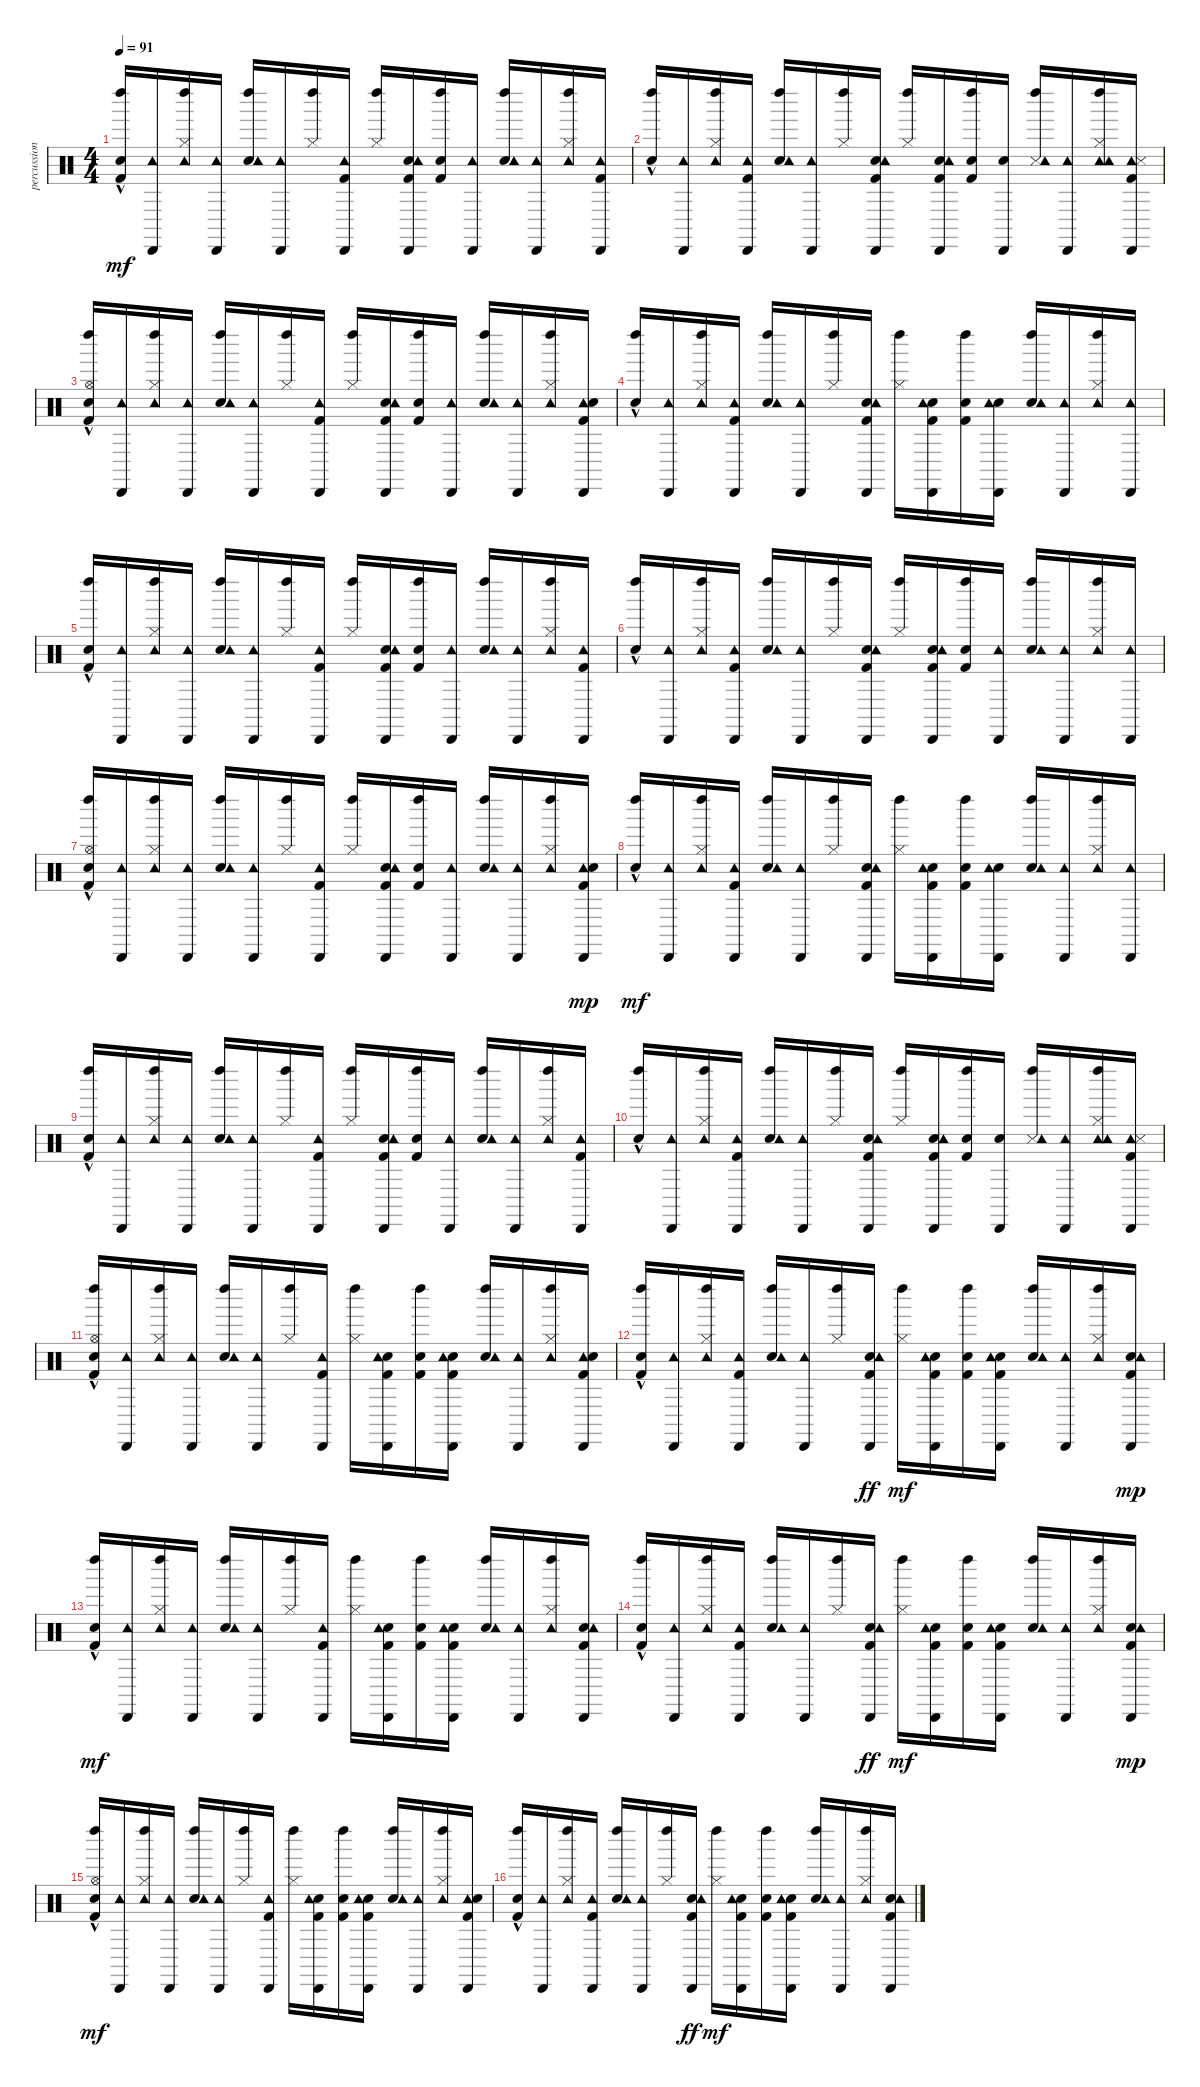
\track ("percussion" "percussion") {instrument percussion}
\staff {score}
\articulation defaults
\ts (4 4)
\tempo 91
\clef neutral
\ks c
("Kick (hit) 2" "Electric Snare (hit)"{hac} "Left Maraca (hit)").16{dy mf} ("Cabasa (hit)" "Tambourine (hit)").16 ("Hi-Hat (closed)" "Left Maraca (hit)" "Tambourine (hit)").16 ("Cabasa (hit)" "Tambourine (hit)").16 ("Electric Snare (hit)" "Left Maraca (hit)" "Tambourine (hit)").16 ("Cabasa (hit)" "Tambourine (hit)").16 ("Hi-Hat (closed)" "Left Maraca (hit)").16 ("Kick (hit) 2" "Cabasa (hit)" "Tambourine (hit)").16 ("Hi-Hat (closed)" "Left Maraca (hit)").16 ("Kick (hit) 2" "Electric Snare (hit)" "Cabasa (hit)" "Tambourine (hit)").16 ("Electric Snare (hit)" "Left Maraca (hit)" "Kick (hit) 2").16 ("Cabasa (hit)" "Tambourine (hit)").16 ("Electric Snare (hit)" "Left Maraca (hit)" "Tambourine (hit)").16 ("Cabasa (hit)" "Tambourine (hit)").16 ("Tambourine (hit)" "Hi-Hat (closed)" "Left Maraca (hit)").16 ("Kick (hit) 2" "Tambourine (hit)" "Cabasa (hit)").16 |
("Left Maraca (hit)" "Electric Snare (hit)"{hac}).16 ("Cabasa (hit)" "Tambourine (hit)").16 ("Hi-Hat (closed)" "Left Maraca (hit)" "Tambourine (hit)").16 ("Cabasa (hit)" "Tambourine (hit)" "Kick (hit) 2").16 ("Electric Snare (hit)" "Left Maraca (hit)" "Tambourine (hit)").16 ("Cabasa (hit)" "Tambourine (hit)").16 ("Hi-Hat (closed)" "Left Maraca (hit)").16 ("Electric Snare (hit)" "Cabasa (hit)" "Tambourine (hit)" "Kick (hit) 2").16 ("Hi-Hat (closed)" "Left Maraca (hit)").16 ("Electric Snare (hit)" "Cabasa (hit)" "Tambourine (hit)" "Kick (hit) 2").16 ("Electric Snare (hit)" "Left Maraca (hit)" "Kick (hit) 2").16 ("Electric Snare (hit)" "Cabasa (hit)").16 ("Metronome (hit)" "Left Maraca (hit)" "Tambourine (hit)").16 ("Cabasa (hit)" "Tambourine (hit)").16 ("Left Maraca (hit)" "Tambourine (hit)" "Hi-Hat (closed)" "Tambourine (hit)").16 ("Cabasa (hit)" "Tambourine (hit)" "Kick (hit) 2" "Metronome (hit)").16 |
("Hi-Hat (open)" "Electric Snare (hit)"{hac} "Kick (hit) 2" "Left Maraca (hit)").16{volume 14} ("Cabasa (hit)" "Tambourine (hit)").16 ("Hi-Hat (closed)" "Left Maraca (hit)" "Tambourine (hit)").16 ("Cabasa (hit)" "Tambourine (hit)").16 ("Electric Snare (hit)" "Left Maraca (hit)" "Tambourine (hit)").16 ("Cabasa (hit)" "Tambourine (hit)").16 ("Hi-Hat (closed)" "Left Maraca (hit)").16 ("Kick (hit) 2" "Cabasa (hit)" "Tambourine (hit)").16{volume 14} ("Hi-Hat (closed)" "Left Maraca (hit)").16 ("Electric Snare (hit)" "Kick (hit) 2" "Cabasa (hit)" "Tambourine (hit)").16 ("Electric Snare (hit)" "Kick (hit) 2" "Left Maraca (hit)").16 ("Cabasa (hit)" "Tambourine (hit)").16 ("Electric Snare (hit)" "Left Maraca (hit)" "Tambourine (hit)").16 ("Cabasa (hit)" "Tambourine (hit)").16 ("Tambourine (hit)" "Hi-Hat (closed)" "Left Maraca (hit)").16 ("Tambourine (hit)" "Electric Snare (hit)" "Kick (hit) 2" "Cabasa (hit)").16 |
("Left Maraca (hit)" "Electric Snare (hit)"{hac}).16 ("Tambourine (hit)" "Cabasa (hit)").16 ("Hi-Hat (closed)" "Tambourine (hit)" "Left Maraca (hit)").16 ("Tambourine (hit)" "Cabasa (hit)" "Kick (hit) 2").16 ("Electric Snare (hit)" "Tambourine (hit)" "Left Maraca (hit)").16 ("Tambourine (hit)" "Cabasa (hit)").16 ("Hi-Hat (closed)" "Left Maraca (hit)").16 ("Electric Snare (hit)" "Tambourine (hit)" "Cabasa (hit)" "Kick (hit) 2").16 ("Hi-Hat (closed)" "Left Maraca (hit)").16 ("Electric Snare (hit)" "Tambourine (hit)" "Cabasa (hit)" "Kick (hit) 2").16 ("Electric Snare (hit)" "Left Maraca (hit)" "Kick (hit) 2").16 ("Electric Snare (hit)" "Tambourine (hit)" "Cabasa (hit)").16 ("Electric Snare (hit)" "Tambourine (hit)" "Left Maraca (hit)").16 ("Tambourine (hit)" "Cabasa (hit)").16 ("Left Maraca (hit)" "Tambourine (hit)" "Hi-Hat (closed)").16 ("Cabasa (hit)" "Tambourine (hit)").16 |
("Left Maraca (hit)" "Kick (hit) 2" "Electric Snare (hit)"{hac}).16 ("Tambourine (hit)" "Cabasa (hit)").16 ("Hi-Hat (closed)" "Tambourine (hit)" "Left Maraca (hit)").16 ("Tambourine (hit)" "Cabasa (hit)").16 ("Electric Snare (hit)" "Tambourine (hit)" "Left Maraca (hit)").16 ("Tambourine (hit)" "Cabasa (hit)").16 ("Hi-Hat (closed)" "Left Maraca (hit)").16 ("Kick (hit) 2" "Tambourine (hit)" "Cabasa (hit)").16 ("Hi-Hat (closed)" "Left Maraca (hit)").16 ("Kick (hit) 2" "Electric Snare (hit)" "Tambourine (hit)" "Cabasa (hit)").16 ("Electric Snare (hit)" "Left Maraca (hit)" "Kick (hit) 2").16 ("Tambourine (hit)" "Cabasa (hit)").16 ("Electric Snare (hit)" "Tambourine (hit)" "Left Maraca (hit)").16 ("Tambourine (hit)" "Cabasa (hit)").16 ("Left Maraca (hit)" "Tambourine (hit)" "Hi-Hat (closed)").16 ("Cabasa (hit)" "Kick (hit) 2" "Tambourine (hit)").16 |
("Left Maraca (hit)" "Electric Snare (hit)"{hac}).16 ("Cabasa (hit)" "Tambourine (hit)").16 ("Hi-Hat (closed)" "Left Maraca (hit)" "Tambourine (hit)").16 ("Cabasa (hit)" "Tambourine (hit)" "Kick (hit) 2").16 ("Electric Snare (hit)" "Left Maraca (hit)" "Tambourine (hit)").16 ("Cabasa (hit)" "Tambourine (hit)").16 ("Hi-Hat (closed)" "Left Maraca (hit)").16 ("Electric Snare (hit)" "Cabasa (hit)" "Tambourine (hit)" "Kick (hit) 2").16 ("Hi-Hat (closed)" "Left Maraca (hit)").16 ("Electric Snare (hit)" "Cabasa (hit)" "Tambourine (hit)" "Kick (hit) 2").16 ("Electric Snare (hit)" "Left Maraca (hit)" "Kick (hit) 2").16 ("Cabasa (hit)" "Tambourine (hit)").16 ("Electric Snare (hit)" "Left Maraca (hit)" "Tambourine (hit)").16 ("Cabasa (hit)" "Tambourine (hit)").16 ("Left Maraca (hit)" "Tambourine (hit)" "Hi-Hat (closed)").16 ("Cabasa (hit)" "Tambourine (hit)").16 |
("Left Maraca (hit)" "Kick (hit) 2" "Hi-Hat (open)" "Electric Snare (hit)"{hac}).16 ("Tambourine (hit)" "Cabasa (hit)").16 ("Hi-Hat (closed)" "Tambourine (hit)" "Left Maraca (hit)").16 ("Tambourine (hit)" "Cabasa (hit)").16 ("Electric Snare (hit)" "Tambourine (hit)" "Left Maraca (hit)").16 ("Tambourine (hit)" "Cabasa (hit)").16 ("Hi-Hat (closed)" "Left Maraca (hit)").16 ("Kick (hit) 2" "Tambourine (hit)" "Cabasa (hit)").16 ("Hi-Hat (closed)" "Left Maraca (hit)").16 ("Kick (hit) 2" "Electric Snare (hit)" "Tambourine (hit)" "Cabasa (hit)").16 ("Kick (hit) 2" "Electric Snare (hit)" "Left Maraca (hit)").16 ("Tambourine (hit)" "Cabasa (hit)").16 ("Electric Snare (hit)" "Tambourine (hit)" "Left Maraca (hit)").16 ("Tambourine (hit)" "Cabasa (hit)").16 ("Left Maraca (hit)" "Tambourine (hit)" "Hi-Hat (closed)").16 ("Cabasa (hit)" "Kick (hit) 2" "Tambourine (hit)" "Electric Snare (hit)").16{dy mp} |
("Electric Snare (hit)"{hac} "Left Maraca (hit)").16{dy mf} ("Tambourine (hit)" "Cabasa (hit)").16 ("Hi-Hat (closed)" "Tambourine (hit)" "Left Maraca (hit)").16 ("Tambourine (hit)" "Cabasa (hit)" "Kick (hit) 2").16 ("Electric Snare (hit)" "Tambourine (hit)" "Left Maraca (hit)").16 ("Tambourine (hit)" "Cabasa (hit)").16 ("Hi-Hat (closed)" "Left Maraca (hit)").16 ("Electric Snare (hit)" "Tambourine (hit)" "Cabasa (hit)" "Kick (hit) 2").16 ("Hi-Hat (closed)" "Left Maraca (hit)").16 ("Electric Snare (hit)" "Tambourine (hit)" "Cabasa (hit)" "Kick (hit) 2").16 ("Electric Snare (hit)" "Left Maraca (hit)" "Kick (hit) 2").16 ("Electric Snare (hit)" "Tambourine (hit)" "Cabasa (hit)").16 ("Electric Snare (hit)" "Tambourine (hit)" "Left Maraca (hit)").16 ("Tambourine (hit)" "Cabasa (hit)").16 ("Tambourine (hit)" "Hi-Hat (closed)" "Left Maraca (hit)").16 ("Tambourine (hit)" "Cabasa (hit)").16 |
("Kick (hit) 2" "Electric Snare (hit)"{hac} "Left Maraca (hit)").16 ("Cabasa (hit)" "Tambourine (hit)").16 ("Hi-Hat (closed)" "Left Maraca (hit)" "Tambourine (hit)").16 ("Cabasa (hit)" "Tambourine (hit)").16 ("Electric Snare (hit)" "Left Maraca (hit)" "Tambourine (hit)").16 ("Cabasa (hit)" "Tambourine (hit)").16 ("Hi-Hat (closed)" "Left Maraca (hit)").16 ("Kick (hit) 2" "Cabasa (hit)" "Tambourine (hit)").16 ("Hi-Hat (closed)" "Left Maraca (hit)").16 ("Kick (hit) 2" "Electric Snare (hit)" "Cabasa (hit)" "Tambourine (hit)").16{volume 14} ("Electric Snare (hit)" "Left Maraca (hit)" "Kick (hit) 2").16 ("Cabasa (hit)" "Tambourine (hit)").16 ("Electric Snare (hit)" "Left Maraca (hit)" "Tambourine (hit)").16 ("Cabasa (hit)" "Tambourine (hit)").16 ("Tambourine (hit)" "Hi-Hat (closed)" "Left Maraca (hit)").16 ("Kick (hit) 2" "Tambourine (hit)" "Cabasa (hit)").16 |
("Left Maraca (hit)" "Electric Snare (hit)"{hac}).16 ("Cabasa (hit)" "Tambourine (hit)").16 ("Hi-Hat (closed)" "Left Maraca (hit)" "Tambourine (hit)").16 ("Cabasa (hit)" "Tambourine (hit)" "Kick (hit) 2").16 ("Electric Snare (hit)" "Left Maraca (hit)" "Tambourine (hit)").16 ("Cabasa (hit)" "Tambourine (hit)").16 ("Hi-Hat (closed)" "Left Maraca (hit)").16 ("Electric Snare (hit)" "Cabasa (hit)" "Tambourine (hit)" "Kick (hit) 2").16 ("Hi-Hat (closed)" "Left Maraca (hit)").16 ("Electric Snare (hit)" "Cabasa (hit)" "Tambourine (hit)" "Kick (hit) 2").16 ("Electric Snare (hit)" "Left Maraca (hit)" "Kick (hit) 2").16 ("Electric Snare (hit)" "Cabasa (hit)").16 ("Metronome (hit)" "Left Maraca (hit)" "Tambourine (hit)").16 ("Cabasa (hit)" "Tambourine (hit)").16 ("Left Maraca (hit)" "Tambourine (hit)" "Hi-Hat (closed)" "Tambourine (hit)").16 ("Cabasa (hit)" "Tambourine (hit)" "Kick (hit) 2" "Metronome (hit)").16 |
("Hi-Hat (open)" "Electric Snare (hit)"{hac} "Kick (hit) 2" "Left Maraca (hit)").16 ("Cabasa (hit)" "Tambourine (hit)").16 ("Hi-Hat (closed)" "Left Maraca (hit)" "Tambourine (hit)").16 ("Cabasa (hit)" "Tambourine (hit)").16 ("Electric Snare (hit)" "Left Maraca (hit)" "Tambourine (hit)").16 ("Cabasa (hit)" "Tambourine (hit)").16 ("Hi-Hat (closed)" "Left Maraca (hit)").16 ("Kick (hit) 2" "Cabasa (hit)" "Tambourine (hit)").16 ("Hi-Hat (closed)" "Left Maraca (hit)").16 ("Electric Snare (hit)" "Kick (hit) 2" "Cabasa (hit)" "Tambourine (hit)").16 ("Electric Snare (hit)" "Kick (hit) 2" "Left Maraca (hit)").16 ("Kick (hit) 2" "Electric Snare (hit)" "Cabasa (hit)" "Tambourine (hit)").16 ("Electric Snare (hit)" "Left Maraca (hit)" "Tambourine (hit)").16 ("Cabasa (hit)" "Tambourine (hit)").16 ("Tambourine (hit)" "Hi-Hat (closed)" "Left Maraca (hit)").16 ("Kick (hit) 2" "Tambourine (hit)" "Electric Snare (hit)" "Cabasa (hit)").16 |
("Kick (hit) 2" "Left Maraca (hit)" "Electric Snare (hit)"{hac}).16 ("Tambourine (hit)" "Cabasa (hit)").16 ("Hi-Hat (closed)" "Tambourine (hit)" "Left Maraca (hit)").16 ("Tambourine (hit)" "Cabasa (hit)" "Kick (hit) 2").16 ("Electric Snare (hit)" "Tambourine (hit)" "Left Maraca (hit)").16 ("Tambourine (hit)" "Cabasa (hit)").16 ("Hi-Hat (closed)" "Left Maraca (hit)").16 ("Electric Snare (hit)" "Tambourine (hit)" "Cabasa (hit)" "Kick (hit) 2").16{dy ff} ("Hi-Hat (closed)" "Left Maraca (hit)").16{dy mf} ("Electric Snare (hit)" "Tambourine (hit)" "Cabasa (hit)" "Kick (hit) 2").16 ("Electric Snare (hit)" "Left Maraca (hit)" "Kick (hit) 2").16 ("Kick (hit) 2" "Electric Snare (hit)" "Tambourine (hit)" "Cabasa (hit)").16 ("Electric Snare (hit)" "Tambourine (hit)" "Left Maraca (hit)").16 ("Tambourine (hit)" "Cabasa (hit)").16 ("Left Maraca (hit)" "Tambourine (hit)" "Hi-Hat (closed)").16 ("Electric Snare (hit)" "Cabasa (hit)" "Tambourine (hit)" "Kick (hit) 2").16{dy mp} |
("Kick (hit) 2" "Left Maraca (hit)" "Electric Snare (hit)"{hac}).16{dy mf} ("Tambourine (hit)" "Cabasa (hit)").16 ("Hi-Hat (closed)" "Tambourine (hit)" "Left Maraca (hit)").16 ("Tambourine (hit)" "Cabasa (hit)").16 ("Electric Snare (hit)" "Tambourine (hit)" "Left Maraca (hit)").16 ("Tambourine (hit)" "Cabasa (hit)").16 ("Hi-Hat (closed)" "Left Maraca (hit)").16 ("Kick (hit) 2" "Tambourine (hit)" "Cabasa (hit)").16 ("Hi-Hat (closed)" "Left Maraca (hit)").16 ("Kick (hit) 2" "Electric Snare (hit)" "Tambourine (hit)" "Cabasa (hit)").16 ("Electric Snare (hit)" "Left Maraca (hit)" "Kick (hit) 2").16 ("Kick (hit) 2" "Electric Snare (hit)" "Tambourine (hit)" "Cabasa (hit)").16 ("Electric Snare (hit)" "Tambourine (hit)" "Left Maraca (hit)").16 ("Tambourine (hit)" "Cabasa (hit)").16 ("Left Maraca (hit)" "Tambourine (hit)" "Hi-Hat (closed)").16 ("Kick (hit) 2" "Electric Snare (hit)" "Cabasa (hit)" "Tambourine (hit)").16 |
("Kick (hit) 2" "Left Maraca (hit)" "Electric Snare (hit)"{hac}).16 ("Cabasa (hit)" "Tambourine (hit)").16 ("Hi-Hat (closed)" "Left Maraca (hit)" "Tambourine (hit)").16 ("Cabasa (hit)" "Tambourine (hit)" "Kick (hit) 2").16 ("Electric Snare (hit)" "Left Maraca (hit)" "Tambourine (hit)").16 ("Cabasa (hit)" "Tambourine (hit)").16 ("Hi-Hat (closed)" "Left Maraca (hit)").16 ("Electric Snare (hit)" "Cabasa (hit)" "Tambourine (hit)" "Kick (hit) 2").16{dy ff} ("Hi-Hat (closed)" "Left Maraca (hit)").16{dy mf} ("Electric Snare (hit)" "Cabasa (hit)" "Tambourine (hit)" "Kick (hit) 2").16 ("Electric Snare (hit)" "Left Maraca (hit)" "Kick (hit) 2").16 ("Kick (hit) 2" "Electric Snare (hit)" "Cabasa (hit)" "Tambourine (hit)").16 ("Electric Snare (hit)" "Left Maraca (hit)" "Tambourine (hit)").16 ("Cabasa (hit)" "Tambourine (hit)").16 ("Left Maraca (hit)" "Tambourine (hit)" "Hi-Hat (closed)").16 ("Electric Snare (hit)" "Cabasa (hit)" "Tambourine (hit)" "Kick (hit) 2").16{dy mp} |
("Kick (hit) 2" "Left Maraca (hit)" "Hi-Hat (open)" "Electric Snare (hit)"{hac}).16{dy mf} ("Tambourine (hit)" "Cabasa (hit)").16 ("Hi-Hat (closed)" "Tambourine (hit)" "Left Maraca (hit)").16 ("Tambourine (hit)" "Cabasa (hit)").16 ("Electric Snare (hit)" "Tambourine (hit)" "Left Maraca (hit)").16 ("Tambourine (hit)" "Cabasa (hit)").16 ("Hi-Hat (closed)" "Left Maraca (hit)").16 ("Kick (hit) 2" "Tambourine (hit)" "Cabasa (hit)").16 ("Hi-Hat (closed)" "Left Maraca (hit)").16 ("Kick (hit) 2" "Electric Snare (hit)" "Tambourine (hit)" "Cabasa (hit)").16 ("Kick (hit) 2" "Electric Snare (hit)" "Left Maraca (hit)").16 ("Kick (hit) 2" "Electric Snare (hit)" "Tambourine (hit)" "Cabasa (hit)").16 ("Electric Snare (hit)" "Tambourine (hit)" "Left Maraca (hit)").16 ("Tambourine (hit)" "Cabasa (hit)").16 ("Left Maraca (hit)" "Tambourine (hit)" "Hi-Hat (closed)").16 ("Cabasa (hit)" "Kick (hit) 2" "Tambourine (hit)" "Electric Snare (hit)").16 |
("Kick (hit) 2" "Electric Snare (hit)"{hac} "Left Maraca (hit)").16 ("Tambourine (hit)" "Cabasa (hit)").16 ("Hi-Hat (closed)" "Tambourine (hit)" "Left Maraca (hit)").16 ("Tambourine (hit)" "Cabasa (hit)" "Kick (hit) 2").16 ("Electric Snare (hit)" "Tambourine (hit)" "Left Maraca (hit)").16 ("Tambourine (hit)" "Cabasa (hit)").16 ("Hi-Hat (closed)" "Left Maraca (hit)").16{volume 14} ("Electric Snare (hit)" "Tambourine (hit)" "Cabasa (hit)" "Kick (hit) 2").16{dy ff} ("Hi-Hat (closed)" "Left Maraca (hit)").16{dy mf} ("Electric Snare (hit)" "Tambourine (hit)" "Cabasa (hit)" "Kick (hit) 2").16 ("Electric Snare (hit)" "Left Maraca (hit)" "Kick (hit) 2").16 ("Kick (hit) 2" "Electric Snare (hit)" "Tambourine (hit)" "Cabasa (hit)").16 ("Electric Snare (hit)" "Tambourine (hit)" "Left Maraca (hit)").16 ("Tambourine (hit)" "Cabasa (hit)").16{volume 14} ("Tambourine (hit)" "Hi-Hat (closed)" "Left Maraca (hit)").16{volume 14} ("Kick (hit) 2" "Electric Snare (hit)" "Tambourine (hit)" "Cabasa (hit)").16
